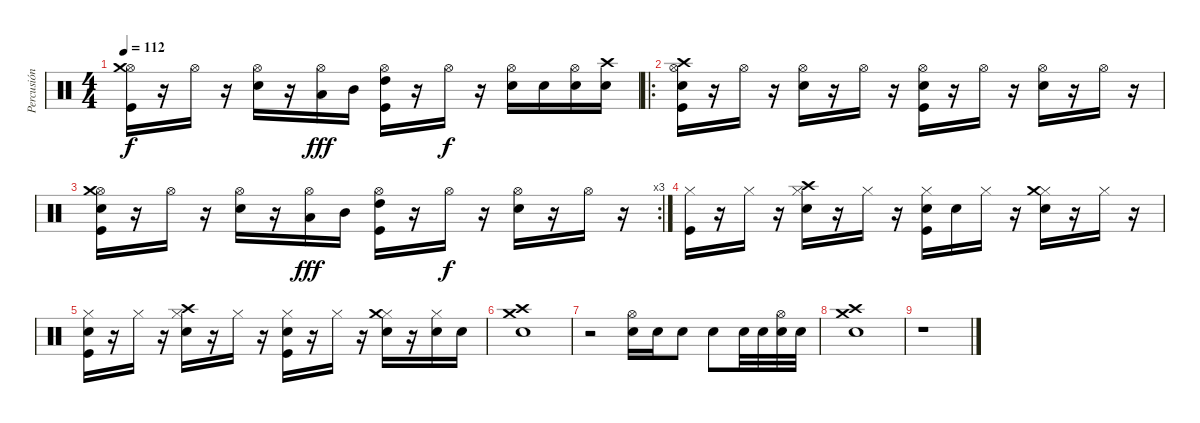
\track ("Percusión" "Percusión") {instrument percussion}
\staff {score}
\articulation defaults
\ts (4 4)
\tempo 112
\clef neutral
\ks c
("Hi-Hat (open)" "Crash medium (hit)" "Kick (hit)").16{dy f} r.16 "Hi-Hat (open)".16 r.16 ("Hi-Hat (open)" "Snare (hit) 2").16 r.16 ("Hi-Hat (open)" "Low Tom (hit)").16{dy fff} "Mid Tom (hit)".16 ("Hi-Hat (open)" "High Tom (hit)" "Kick (hit)").16 r.16 "Hi-Hat (open)".16{dy f} r.16 ("Hi-Hat (open)" "Snare (hit) 2").16 "Snare (hit) 2".16 ("Hi-Hat (open)" "Snare (hit) 2").16 ("Crash high (hit)" "Snare (hit) 2").16 |
\ro
("Hi-Hat (open)" "Crash high (hit)" "Snare (hit) 2" "Kick (hit)").16 r.16 "Hi-Hat (open)".16 r.16 ("Hi-Hat (open)" "Snare (hit) 2").16 r.16 "Hi-Hat (open)".16 r.16 ("Hi-Hat (open)" "Snare (hit) 2" "Kick (hit)").16 r.16 "Hi-Hat (open)".16 r.16 ("Hi-Hat (open)" "Snare (hit) 2").16 r.16 "Hi-Hat (open)".16 r.16 |
\rc 3
("Hi-Hat (open)" "Crash medium (hit)" "Snare (hit) 2" "Kick (hit)").16 r.16 "Hi-Hat (open)".16 r.16 ("Hi-Hat (open)" "Snare (hit) 2").16 r.16 ("Hi-Hat (open)" "Low Tom (hit)").16{dy fff} "Mid Tom (hit)".16 ("Hi-Hat (open)" "High Tom (hit)" "Kick (hit)").16 r.16 "Hi-Hat (open)".16{dy f} r.16 ("Hi-Hat (open)" "Snare (hit) 2").16 r.16 "Hi-Hat (open)".16 r.16 |
("Hi-Hat (closed)" "Kick (hit)").16 r.16 "Hi-Hat (closed)".16 r.16 ("Hi-Hat (closed)" "Crash high (hit)" "Snare (hit) 2").16 r.16 "Hi-Hat (closed)".16 r.16 ("Hi-Hat (closed)" "Snare (hit) 2" "Kick (hit)").16 "Snare (hit) 2".16 "Hi-Hat (closed)".16 r.16 ("Hi-Hat (closed)" "Crash medium (hit)" "Snare (hit) 2").16 r.16 "Hi-Hat (closed)".16 r.16 |
("Hi-Hat (closed)" "Snare (hit) 2" "Kick (hit)").16 r.16 "Hi-Hat (closed)".16 r.16 ("Hi-Hat (closed)" "Crash high (hit)" "Snare (hit) 2").16 r.16 "Hi-Hat (closed)".16 r.16 ("Hi-Hat (closed)" "Snare (hit) 2" "Kick (hit)").16 r.16 "Hi-Hat (closed)".16 r.16 ("Hi-Hat (closed)" "Crash medium (hit)" "Snare (hit) 2").16 r.16 ("Hi-Hat (closed)" "Snare (hit) 2").16 "Snare (hit) 2".16 |
("Crash high (hit)" "Crash medium (hit)" "Snare (hit) 2").1 |
r.2 ("Snare (hit) 2" "Hi-Hat (open)").16 "Snare (hit) 2".16 "Snare (hit) 2".8 "Snare (hit) 2".8 "Snare (hit) 2".32 "Snare (hit) 2".32 ("Snare (hit) 2" "Hi-Hat (open)").32 "Snare (hit) 2".32 |
("Crash high (hit)" "Crash medium (hit)" "Snare (hit) 2").1 |
r.1
